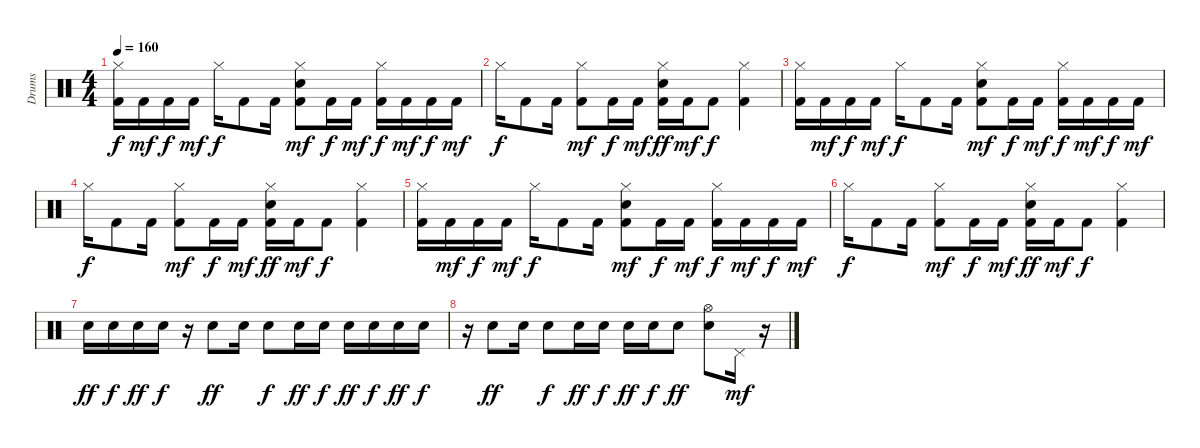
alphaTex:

\track ("Drums" "Drums") {instrument percussion}
\staff {score}
\articulation defaults
\ts (4 4)
\tempo 160
\clef neutral
\ks c
("Hi-Hat (closed)" "Kick (hit) 2").16{dy f} "Kick (hit) 2".16{dy mf} "Kick (hit) 2".16{dy f} "Kick (hit) 2".16{dy mf} "Hi-Hat (closed)".16{dy f} "Kick (hit) 2".8 "Kick (hit) 2".16 ("Snare (hit) 2" "Hi-Hat (closed)" "Kick (hit) 2").8{dy mf} "Kick (hit) 2".16{dy f} "Kick (hit) 2".16{dy mf} ("Hi-Hat (closed)" "Kick (hit) 2").16{dy f} "Kick (hit) 2".16{dy mf} "Kick (hit) 2".16{dy f} "Kick (hit) 2".16{dy mf} |
"Hi-Hat (closed)".16{dy f} "Kick (hit) 2".8 "Kick (hit) 2".16 ("Hi-Hat (closed)" "Kick (hit) 2").8{dy mf} "Kick (hit) 2".16{dy f} "Kick (hit) 2".16{dy mf} ("Snare (hit) 2" "Hi-Hat (closed)" "Kick (hit) 2").16{dy ff} "Kick (hit) 2".16{dy mf} "Kick (hit) 2".8{dy f} ("Hi-Hat (closed)" "Kick (hit) 2").4 |
("Hi-Hat (closed)" "Kick (hit) 2").16 "Kick (hit) 2".16{dy mf} "Kick (hit) 2".16{dy f} "Kick (hit) 2".16{dy mf} "Hi-Hat (closed)".16{dy f} "Kick (hit) 2".8 "Kick (hit) 2".16 ("Snare (hit) 2" "Hi-Hat (closed)" "Kick (hit) 2").8{dy mf} "Kick (hit) 2".16{dy f} "Kick (hit) 2".16{dy mf} ("Hi-Hat (closed)" "Kick (hit) 2").16{dy f} "Kick (hit) 2".16{dy mf} "Kick (hit) 2".16{dy f} "Kick (hit) 2".16{dy mf} |
"Hi-Hat (closed)".16{dy f} "Kick (hit) 2".8 "Kick (hit) 2".16 ("Hi-Hat (closed)" "Kick (hit) 2").8{dy mf} "Kick (hit) 2".16{dy f} "Kick (hit) 2".16{dy mf} ("Snare (hit) 2" "Hi-Hat (closed)" "Kick (hit) 2").16{dy ff} "Kick (hit) 2".16{dy mf} "Kick (hit) 2".8{dy f} ("Hi-Hat (closed)" "Kick (hit) 2").4 |
("Hi-Hat (closed)" "Kick (hit) 2").16 "Kick (hit) 2".16{dy mf} "Kick (hit) 2".16{dy f} "Kick (hit) 2".16{dy mf} "Hi-Hat (closed)".16{dy f} "Kick (hit) 2".8 "Kick (hit) 2".16 ("Snare (hit) 2" "Hi-Hat (closed)" "Kick (hit) 2").8{dy mf} "Kick (hit) 2".16{dy f} "Kick (hit) 2".16{dy mf} ("Hi-Hat (closed)" "Kick (hit) 2").16{dy f} "Kick (hit) 2".16{dy mf} "Kick (hit) 2".16{dy f} "Kick (hit) 2".16{dy mf} |
"Hi-Hat (closed)".16{dy f} "Kick (hit) 2".8 "Kick (hit) 2".16 ("Hi-Hat (closed)" "Kick (hit) 2").8{dy mf} "Kick (hit) 2".16{dy f} "Kick (hit) 2".16{dy mf} ("Snare (hit) 2" "Hi-Hat (closed)" "Kick (hit) 2").16{dy ff} "Kick (hit) 2".16{dy mf} "Kick (hit) 2".8{dy f} ("Hi-Hat (closed)" "Kick (hit) 2").4 |
"Snare (hit) 2".16{dy ff} "Snare (hit) 2".16{dy f} "Snare (hit) 2".16{dy ff} "Snare (hit) 2".16{dy f} r.16 "Snare (hit) 2".8{dy ff} "Snare (hit) 2".16 "Snare (hit) 2".8{dy f} "Snare (hit) 2".16{dy ff} "Snare (hit) 2".16{dy f} "Snare (hit) 2".16{dy ff} "Snare (hit) 2".16{dy f} "Snare (hit) 2".16{dy ff} "Snare (hit) 2".16{dy f} |
r.16 "Snare (hit) 2".8{dy ff} "Snare (hit) 2".16 "Snare (hit) 2".8{dy f} "Snare (hit) 2".16{dy ff} "Snare (hit) 2".16{dy f} "Snare (hit) 2".16{dy ff} "Snare (hit) 2".16{dy f} "Snare (hit) 2".8{dy ff} ("Hi-Hat (open)" "Snare (hit) 2").8 "Pedal Hi-Hat (hit)".16{dy mf} r.16
